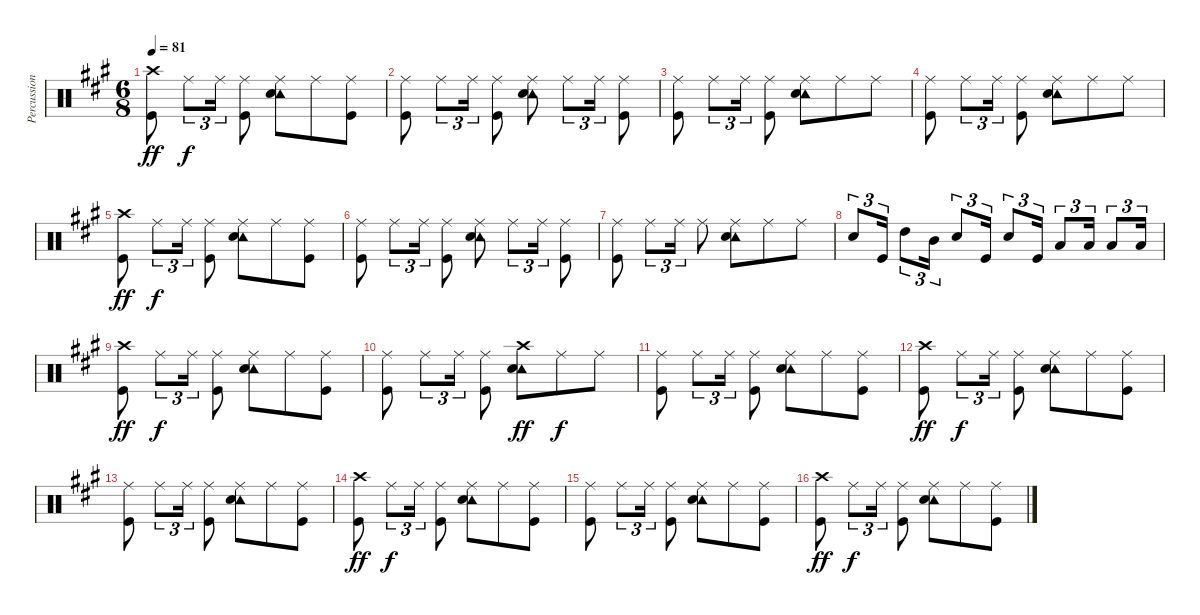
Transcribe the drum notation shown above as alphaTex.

\track ("Percussion" "Percussion") {instrument percussion}
\staff {score}
\articulation defaults
\ts (6 8)
\tempo 81
\clef neutral
\ks a
("Crash high (hit)" "Kick (hit)").8{dy ff} "Ride (middle)".8{tu (3 2) dy f} "Ride (middle)".16{tu (3 2)} ("Ride (middle)" "Kick (hit)").8 ("Ride (middle)" "Tambourine (hit)" "Snare (hit) 2").8 "Ride (middle)".8 ("Ride (middle)" "Kick (hit)").8 |
("Ride (middle)" "Kick (hit)").8 "Ride (middle)".8{tu (3 2)} "Ride (middle)".16{tu (3 2)} ("Ride (middle)" "Kick (hit)").8 ("Ride (middle)" "Tambourine (hit)" "Snare (hit) 2").8 "Ride (middle)".8{tu (3 2)} "Ride (middle)".16{tu (3 2)} ("Ride (middle)" "Kick (hit)").8 |
("Ride (middle)" "Kick (hit)").8 "Ride (middle)".8{tu (3 2)} "Ride (middle)".16{tu (3 2)} ("Ride (middle)" "Kick (hit)").8 ("Ride (middle)" "Tambourine (hit)" "Snare (hit) 2").8 "Ride (middle)".8 "Ride (middle)".8 |
("Ride (middle)" "Kick (hit)").8 "Ride (middle)".8{tu (3 2)} "Ride (middle)".16{tu (3 2)} ("Ride (middle)" "Kick (hit)").8 ("Ride (middle)" "Tambourine (hit)" "Snare (hit) 2").8 "Ride (middle)".8 "Ride (middle)".8 |
("Crash high (hit)" "Kick (hit)").8{dy ff} "Ride (middle)".8{tu (3 2) dy f} "Ride (middle)".16{tu (3 2)} ("Ride (middle)" "Kick (hit)").8 ("Ride (middle)" "Tambourine (hit)" "Snare (hit) 2").8 "Ride (middle)".8 ("Ride (middle)" "Kick (hit)").8 |
("Ride (middle)" "Kick (hit)").8 "Ride (middle)".8{tu (3 2)} "Ride (middle)".16{tu (3 2)} ("Ride (middle)" "Kick (hit)").8 ("Ride (middle)" "Tambourine (hit)" "Snare (hit) 2").8 "Ride (middle)".8{tu (3 2)} "Ride (middle)".16{tu (3 2)} ("Ride (middle)" "Kick (hit)").8 |
("Ride (middle)" "Kick (hit)").8 "Ride (middle)".8{tu (3 2)} "Ride (middle)".16{tu (3 2)} "Ride (middle)".8 ("Ride (middle)" "Tambourine (hit)" "Snare (hit) 2").8 "Ride (middle)".8 "Ride (middle)".8 |
"Snare (hit) 2".8{tu (3 2)} "Kick (hit)".16{tu (3 2)} "High Tom (hit)".8{tu (3 2)} "Mid Tom (hit)".16{tu (3 2)} "Snare (hit) 2".8{tu (3 2)} "Kick (hit)".16{tu (3 2)} "Snare (hit) 2".8{tu (3 2)} "Kick (hit)".16{tu (3 2)} "Low Tom (hit)".8{tu (3 2)} "Low Tom (hit)".16{tu (3 2)} "Low Tom (hit)".8{tu (3 2)} "Low Tom (hit)".16{tu (3 2)} |
("Crash high (hit)" "Kick (hit)").8{dy ff} "Ride (middle)".8{tu (3 2) dy f} "Ride (middle)".16{tu (3 2)} ("Ride (middle)" "Kick (hit)").8 ("Ride (middle)" "Tambourine (hit)" "Snare (hit) 2").8 "Ride (middle)".8 ("Ride (middle)" "Kick (hit)").8 |
("Ride (middle)" "Kick (hit)").8 "Ride (middle)".8{tu (3 2)} "Ride (middle)".16{tu (3 2)} ("Ride (middle)" "Kick (hit)").8 ("Crash high (hit)" "Tambourine (hit)" "Snare (hit) 2").8{dy ff} "Ride (middle)".8{dy f} "Ride (middle)".8 |
("Ride (middle)" "Kick (hit)").8 "Ride (middle)".8{tu (3 2)} "Ride (middle)".16{tu (3 2)} ("Ride (middle)" "Kick (hit)").8 ("Ride (middle)" "Tambourine (hit)" "Snare (hit) 2").8 "Ride (middle)".8 ("Ride (middle)" "Kick (hit)").8 |
("Crash high (hit)" "Kick (hit)").8{dy ff} "Ride (middle)".8{tu (3 2) dy f} "Ride (middle)".16{tu (3 2)} ("Ride (middle)" "Kick (hit)").8 ("Ride (middle)" "Tambourine (hit)" "Snare (hit) 2").8 "Ride (middle)".8 ("Ride (middle)" "Kick (hit)").8 |
("Ride (middle)" "Kick (hit)").8 "Ride (middle)".8{tu (3 2)} "Ride (middle)".16{tu (3 2)} ("Ride (middle)" "Kick (hit)").8 ("Ride (middle)" "Tambourine (hit)" "Snare (hit) 2").8 "Ride (middle)".8 ("Ride (middle)" "Kick (hit)").8 |
("Crash high (hit)" "Kick (hit)").8{dy ff} "Ride (middle)".8{tu (3 2) dy f} "Ride (middle)".16{tu (3 2)} ("Ride (middle)" "Kick (hit)").8 ("Ride (middle)" "Tambourine (hit)" "Snare (hit) 2").8 "Ride (middle)".8 ("Ride (middle)" "Kick (hit)").8 |
("Ride (middle)" "Kick (hit)").8 "Ride (middle)".8{tu (3 2)} "Ride (middle)".16{tu (3 2)} ("Ride (middle)" "Kick (hit)").8 ("Ride (middle)" "Tambourine (hit)" "Snare (hit) 2").8 "Ride (middle)".8 ("Ride (middle)" "Kick (hit)").8 |
("Crash high (hit)" "Kick (hit)").8{dy ff} "Ride (middle)".8{tu (3 2) dy f} "Ride (middle)".16{tu (3 2)} ("Ride (middle)" "Kick (hit)").8 ("Ride (middle)" "Tambourine (hit)" "Snare (hit) 2").8 "Ride (middle)".8 ("Ride (middle)" "Kick (hit)").8
